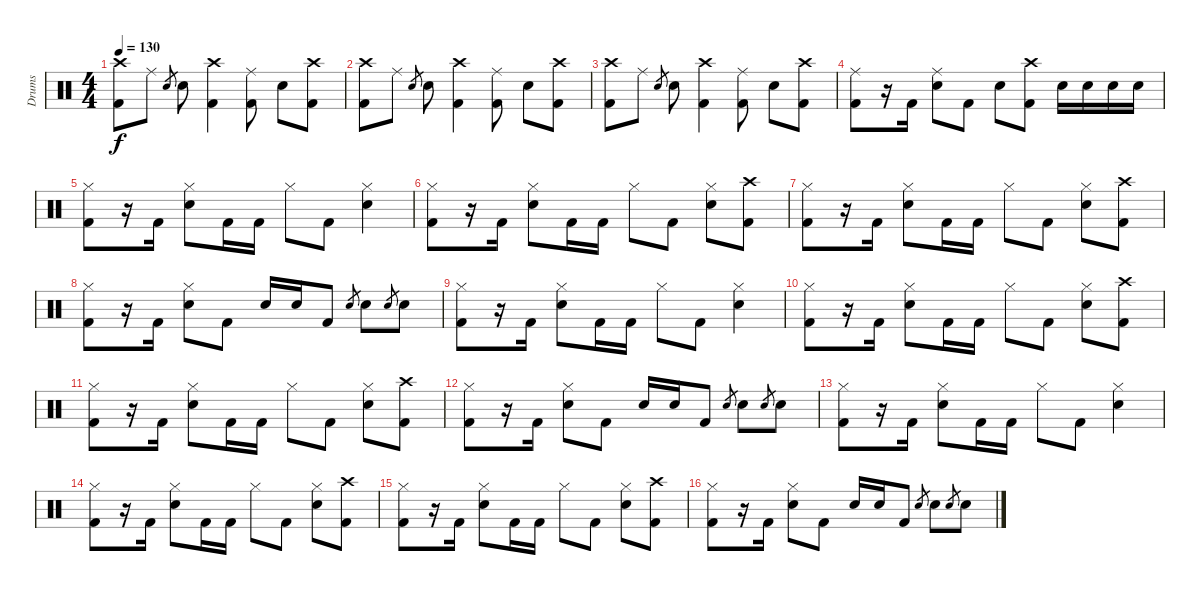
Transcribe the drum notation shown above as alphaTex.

\track ("Drums" "Drums") {instrument percussion}
\staff {score}
\articulation defaults
\ts (4 4)
\tempo 130
\clef neutral
\ks c
("Crash high (hit)" "Kick (hit) 2").8{dy f} "Ride (middle)".8 "Electric Snare (hit)".8{gr} "Electric Snare (hit)".8 ("Crash high (hit)" "Kick (hit) 2").4 ("Ride (middle)" "Kick (hit) 2").8 "Electric Snare (hit)".8 ("Crash high (hit)" "Kick (hit) 2").8 |
("Crash high (hit)" "Kick (hit) 2").8 "Ride (middle)".8 "Electric Snare (hit)".8{gr} "Electric Snare (hit)".8 ("Crash high (hit)" "Kick (hit) 2").4 ("Ride (middle)" "Kick (hit) 2").8 "Electric Snare (hit)".8 ("Crash high (hit)" "Kick (hit) 2").8 |
("Crash high (hit)" "Kick (hit) 2").8 "Ride (middle)".8 "Electric Snare (hit)".8{gr} "Electric Snare (hit)".8 ("Crash high (hit)" "Kick (hit) 2").4 ("Ride (middle)" "Kick (hit) 2").8 "Electric Snare (hit)".8 ("Crash high (hit)" "Kick (hit) 2").8 |
("Ride (middle)" "Kick (hit) 2").8 r.16 "Kick (hit) 2".16 ("Ride (middle)" "Electric Snare (hit)").8 "Kick (hit) 2".8 "Electric Snare (hit)".8 ("Crash high (hit)" "Kick (hit) 2").8 "Electric Snare (hit)".16 "Electric Snare (hit)".16 "Electric Snare (hit)".16 "Electric Snare (hit)".16 |
("Hi-Hat (closed)" "Kick (hit) 2").8 r.16 "Kick (hit) 2".16 ("Hi-Hat (closed)" "Electric Snare (hit)").8 "Kick (hit) 2".16 "Kick (hit) 2".16 "Hi-Hat (closed)".8 "Kick (hit) 2".8 ("Hi-Hat (closed)" "Electric Snare (hit)").4 |
("Hi-Hat (closed)" "Kick (hit) 2").8 r.16 "Kick (hit) 2".16 ("Hi-Hat (closed)" "Electric Snare (hit)").8 "Kick (hit) 2".16 "Kick (hit) 2".16 "Hi-Hat (closed)".8 "Kick (hit) 2".8 ("Hi-Hat (closed)" "Electric Snare (hit)").8 ("Crash high (hit)" "Kick (hit) 2").8 |
("Hi-Hat (closed)" "Kick (hit) 2").8 r.16 "Kick (hit) 2".16 ("Hi-Hat (closed)" "Electric Snare (hit)").8 "Kick (hit) 2".16 "Kick (hit) 2".16 "Hi-Hat (closed)".8 "Kick (hit) 2".8 ("Hi-Hat (closed)" "Electric Snare (hit)").8 ("Crash high (hit)" "Kick (hit) 2").8 |
("Hi-Hat (closed)" "Kick (hit) 2").8 r.16 "Kick (hit) 2".16 ("Hi-Hat (closed)" "Electric Snare (hit)").8 "Kick (hit) 2".8 "Electric Snare (hit)".16 "Electric Snare (hit)".16 "Kick (hit) 2".8 "Electric Snare (hit)".8{gr} "Electric Snare (hit)".8 "Electric Snare (hit)".8{gr} "Electric Snare (hit)".8 |
("Hi-Hat (closed)" "Kick (hit) 2").8 r.16 "Kick (hit) 2".16 ("Hi-Hat (closed)" "Electric Snare (hit)").8 "Kick (hit) 2".16 "Kick (hit) 2".16 "Hi-Hat (closed)".8 "Kick (hit) 2".8 ("Hi-Hat (closed)" "Electric Snare (hit)").4 |
("Hi-Hat (closed)" "Kick (hit) 2").8 r.16 "Kick (hit) 2".16 ("Hi-Hat (closed)" "Electric Snare (hit)").8 "Kick (hit) 2".16 "Kick (hit) 2".16 "Hi-Hat (closed)".8 "Kick (hit) 2".8 ("Hi-Hat (closed)" "Electric Snare (hit)").8 ("Crash high (hit)" "Kick (hit) 2").8 |
("Hi-Hat (closed)" "Kick (hit) 2").8 r.16 "Kick (hit) 2".16 ("Hi-Hat (closed)" "Electric Snare (hit)").8 "Kick (hit) 2".16 "Kick (hit) 2".16 "Hi-Hat (closed)".8 "Kick (hit) 2".8 ("Hi-Hat (closed)" "Electric Snare (hit)").8 ("Crash high (hit)" "Kick (hit) 2").8 |
("Hi-Hat (closed)" "Kick (hit) 2").8 r.16 "Kick (hit) 2".16 ("Hi-Hat (closed)" "Electric Snare (hit)").8 "Kick (hit) 2".8 "Electric Snare (hit)".16 "Electric Snare (hit)".16 "Kick (hit) 2".8 "Electric Snare (hit)".8{gr} "Electric Snare (hit)".8 "Electric Snare (hit)".8{gr} "Electric Snare (hit)".8 |
("Hi-Hat (closed)" "Kick (hit) 2").8 r.16 "Kick (hit) 2".16 ("Hi-Hat (closed)" "Electric Snare (hit)").8 "Kick (hit) 2".16 "Kick (hit) 2".16 "Hi-Hat (closed)".8 "Kick (hit) 2".8 ("Hi-Hat (closed)" "Electric Snare (hit)").4 |
("Hi-Hat (closed)" "Kick (hit) 2").8 r.16 "Kick (hit) 2".16 ("Hi-Hat (closed)" "Electric Snare (hit)").8 "Kick (hit) 2".16 "Kick (hit) 2".16 "Hi-Hat (closed)".8 "Kick (hit) 2".8 ("Hi-Hat (closed)" "Electric Snare (hit)").8 ("Crash high (hit)" "Kick (hit) 2").8 |
("Hi-Hat (closed)" "Kick (hit) 2").8 r.16 "Kick (hit) 2".16 ("Hi-Hat (closed)" "Electric Snare (hit)").8 "Kick (hit) 2".16 "Kick (hit) 2".16 "Hi-Hat (closed)".8 "Kick (hit) 2".8 ("Hi-Hat (closed)" "Electric Snare (hit)").8 ("Crash high (hit)" "Kick (hit) 2").8 |
("Hi-Hat (closed)" "Kick (hit) 2").8 r.16 "Kick (hit) 2".16 ("Hi-Hat (closed)" "Electric Snare (hit)").8 "Kick (hit) 2".8 "Electric Snare (hit)".16 "Electric Snare (hit)".16 "Kick (hit) 2".8 "Electric Snare (hit)".8{gr} "Electric Snare (hit)".8 "Electric Snare (hit)".8{gr} "Electric Snare (hit)".8
